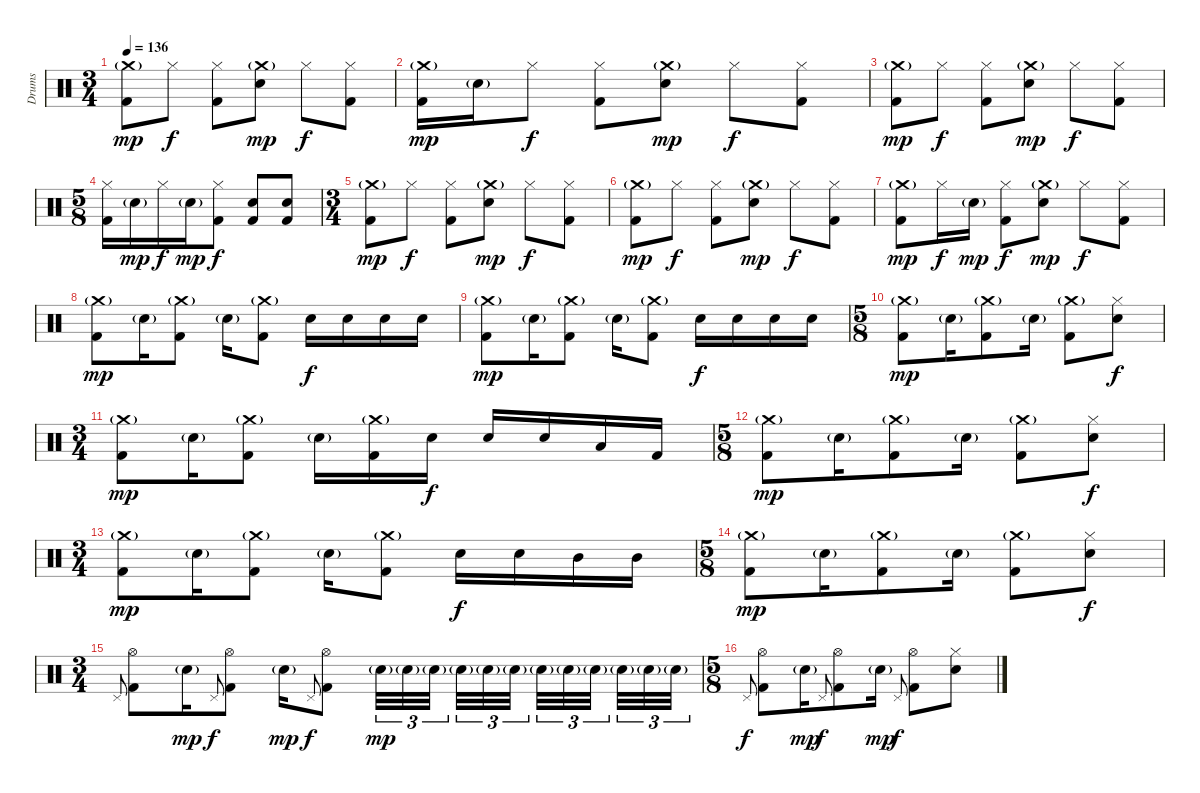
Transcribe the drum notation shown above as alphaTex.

\track ("Drums" "Drums") {instrument percussion}
\staff {score}
\articulation defaults
\ts (3 4)
\tempo 136
\clef neutral
\ks c
("Crash medium (hit)"{g} "Kick (hit) 2").8{dy mp} "Hi-Hat (closed)".8{dy f} ("Hi-Hat (closed)" "Kick (hit) 2").8 ("Crash medium (hit)"{g} "Electric Snare (hit)").8{dy mp} "Hi-Hat (closed)".8{dy f} ("Hi-Hat (closed)" "Kick (hit) 2").8 |
("Crash medium (hit)"{g} "Kick (hit) 2").16{dy mp} "Electric Snare (hit)"{g}.16 "Hi-Hat (closed)".8{dy f} ("Hi-Hat (closed)" "Kick (hit) 2").8 ("Crash medium (hit)"{g} "Electric Snare (hit)").8{dy mp} "Hi-Hat (closed)".8{dy f} ("Hi-Hat (closed)" "Kick (hit) 2").8 |
("Crash medium (hit)"{g} "Kick (hit) 2").8{dy mp} "Hi-Hat (closed)".8{dy f} ("Hi-Hat (closed)" "Kick (hit) 2").8 ("Crash medium (hit)"{g} "Electric Snare (hit)").8{dy mp} "Hi-Hat (closed)".8{dy f} ("Hi-Hat (closed)" "Kick (hit) 2").8 |
\ts (5 8)
("Hi-Hat (closed)" "Kick (hit) 2").16 "Electric Snare (hit)"{g}.16{dy mp} "Hi-Hat (closed)".16{dy f} "Electric Snare (hit)"{g}.16{dy mp} ("Hi-Hat (closed)" "Kick (hit) 2").8{dy f} ("Electric Snare (hit)" "Kick (hit) 2").8 ("Electric Snare (hit)" "Kick (hit) 2").8 |
\ts (3 4)
("Crash medium (hit)"{g} "Kick (hit) 2").8{dy mp} "Hi-Hat (closed)".8{dy f} ("Hi-Hat (closed)" "Kick (hit) 2").8 ("Crash medium (hit)"{g} "Electric Snare (hit)").8{dy mp} "Hi-Hat (closed)".8{dy f} ("Hi-Hat (closed)" "Kick (hit) 2").8 |
("Crash medium (hit)"{g} "Kick (hit) 2").8{dy mp} "Hi-Hat (closed)".8{dy f} ("Hi-Hat (closed)" "Kick (hit) 2").8 ("Crash medium (hit)"{g} "Electric Snare (hit)").8{dy mp} "Hi-Hat (closed)".8{dy f} ("Hi-Hat (closed)" "Kick (hit) 2").8 |
("Crash medium (hit)"{g} "Kick (hit) 2").8{dy mp} "Hi-Hat (closed)".16{dy f} "Electric Snare (hit)"{g}.16{dy mp} ("Hi-Hat (closed)" "Kick (hit) 2").8{dy f} ("Crash medium (hit)"{g} "Electric Snare (hit)").8{dy mp} "Hi-Hat (closed)".8{dy f} ("Hi-Hat (closed)" "Kick (hit) 2").8 |
("Crash medium (hit)"{g} "Kick (hit) 2").8{dy mp} "Electric Snare (hit)"{g}.16 ("Crash medium (hit)"{g} "Kick (hit) 2").8 "Electric Snare (hit)"{g}.16 ("Crash medium (hit)"{g} "Kick (hit) 2").8 "Electric Snare (hit)".16{dy f} "Electric Snare (hit)".16 "Electric Snare (hit)".16 "Electric Snare (hit)".16 |
("Crash medium (hit)"{g} "Kick (hit) 2").8{dy mp} "Electric Snare (hit)"{g}.16 ("Crash medium (hit)"{g} "Kick (hit) 2").8 "Electric Snare (hit)"{g}.16 ("Crash medium (hit)"{g} "Kick (hit) 2").8 "Electric Snare (hit)".16{dy f} "Electric Snare (hit)".16 "Electric Snare (hit)".16 "Electric Snare (hit)".16 |
\ts (5 8)
("Crash medium (hit)"{g} "Kick (hit) 2").8{dy mp} "Electric Snare (hit)"{g}.16 ("Crash medium (hit)"{g} "Kick (hit) 2").8 "Electric Snare (hit)"{g}.16 ("Crash medium (hit)"{g} "Kick (hit) 2").8 ("Hi-Hat (closed)" "Electric Snare (hit)").8{dy f} |
\ts (3 4)
("Crash medium (hit)"{g} "Kick (hit) 2").8{dy mp} "Electric Snare (hit)"{g}.16 ("Crash medium (hit)"{g} "Kick (hit) 2").8 "Electric Snare (hit)"{g}.16 ("Crash medium (hit)"{g} "Kick (hit) 2").16 "Electric Snare (hit)".16{dy f} "Electric Snare (hit)".16 "Electric Snare (hit)".16 "Low Tom (hit)".16 "Kick (hit) 2".16 |
\ts (5 8)
("Crash medium (hit)"{g} "Kick (hit) 2").8{dy mp} "Electric Snare (hit)"{g}.16 ("Crash medium (hit)"{g} "Kick (hit) 2").8 "Electric Snare (hit)"{g}.16 ("Crash medium (hit)"{g} "Kick (hit) 2").8 ("Hi-Hat (closed)" "Electric Snare (hit)").8{dy f} |
\ts (3 4)
("Crash medium (hit)"{g} "Kick (hit) 2").8{dy mp} "Electric Snare (hit)"{g}.16 ("Crash medium (hit)"{g} "Kick (hit) 2").8 "Electric Snare (hit)"{g}.16 ("Crash medium (hit)"{g} "Kick (hit) 2").8 "Electric Snare (hit)".16{dy f} "Electric Snare (hit)".16 "Mid Tom (hit)".16 "Mid Tom (hit)".16 |
\ts (5 8)
("Crash medium (hit)"{g} "Kick (hit) 2").8{dy mp} "Electric Snare (hit)"{g}.16 ("Crash medium (hit)"{g} "Kick (hit) 2").8 "Electric Snare (hit)"{g}.16 ("Crash medium (hit)"{g} "Kick (hit) 2").8 ("Hi-Hat (closed)" "Electric Snare (hit)").8{dy f} |
\ts (3 4)
"Pedal Hi-Hat (hit)".8{gr onbeat} ("Hi-Hat (open)" "Kick (hit) 2").8 "Electric Snare (hit)"{g}.16{dy mp} "Pedal Hi-Hat (hit)".8{gr onbeat dy f} ("Hi-Hat (open)" "Kick (hit) 2").8 "Electric Snare (hit)"{g}.16{dy mp} "Pedal Hi-Hat (hit)".8{gr onbeat dy f} ("Hi-Hat (open)" "Kick (hit) 2").8 "Electric Snare (hit)"{g}.32{tu (3 2) dy mp} "Electric Snare (hit)"{g}.32{tu (3 2)} "Electric Snare (hit)"{g}.32{tu (3 2) beam splitsecondary} "Electric Snare (hit)"{g}.32{tu (3 2)} "Electric Snare (hit)"{g}.32{tu (3 2)} "Electric Snare (hit)"{g}.32{tu (3 2) beam splitsecondary} "Electric Snare (hit)"{g}.32{tu (3 2)} "Electric Snare (hit)"{g}.32{tu (3 2)} "Electric Snare (hit)"{g}.32{tu (3 2) beam splitsecondary} "Electric Snare (hit)"{g}.32{tu (3 2)} "Electric Snare (hit)"{g}.32{tu (3 2)} "Electric Snare (hit)"{g}.32{tu (3 2)} |
\ts (5 8)
"Pedal Hi-Hat (hit)".8{gr onbeat dy f} ("Hi-Hat (open)" "Kick (hit) 2").8 "Electric Snare (hit)"{g}.16{dy mp} "Pedal Hi-Hat (hit)".8{gr onbeat dy f} ("Hi-Hat (open)" "Kick (hit) 2").8 "Electric Snare (hit)"{g}.16{dy mp} "Pedal Hi-Hat (hit)".8{gr onbeat dy f} ("Hi-Hat (open)" "Kick (hit) 2").8 ("Hi-Hat (closed)" "Electric Snare (hit)").8
